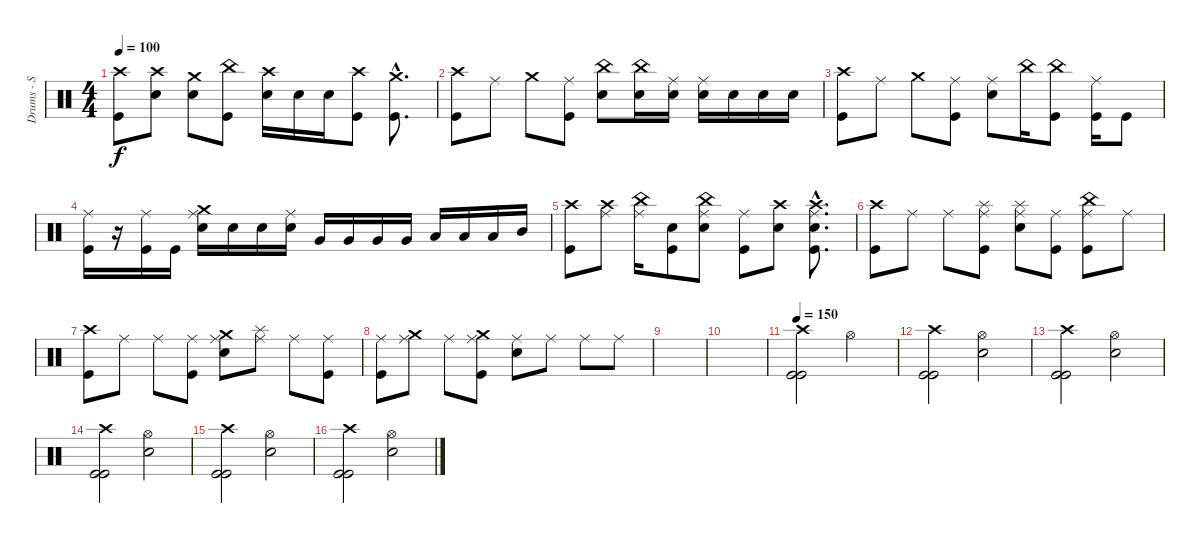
\track ("Drums - S Man" "Drums - S ") {instrument percussion}
\staff {score}
\articulation defaults
\ts (4 4)
\tempo 100
\clef neutral
\ks c
("Crash high (hit)" "Kick (hit)").8{dy f} ("Crash high (hit)" "Electric Snare (hit)").8 ("Crash medium (hit)" "Electric Snare (hit)").8 ("China (hit)" "Kick (hit)").8 ("Crash high (hit)" "Electric Snare (hit)").16 "Electric Snare (hit)".16 "Electric Snare (hit)".16 ("Crash high (hit)" "Kick (hit)").8 ("Crash medium (hit)"{hac} "Kick (hit)"{hac}).8{d} |
("Crash high (hit)" "Kick (hit)").8 "Ride (middle)".8 "Crash medium (hit)".8 ("Ride (middle)" "Kick (hit)").8 ("China (hit)" "Electric Snare (hit)").8 ("China (hit)" "Electric Snare (hit)").16 ("Ride (middle)" "Electric Snare (hit)").16 ("Ride (middle)" "Electric Snare (hit)").16 "Electric Snare (hit)".16 "Electric Snare (hit)".16 "Electric Snare (hit)".16 |
("Crash high (hit)" "Kick (hit)").8 "Ride (middle)".8 "Crash medium (hit)".8 ("Ride (middle)" "Kick (hit)").8 ("Ride (middle)" "Electric Snare (hit)").8 "China (hit)".16 ("China (hit)" "Kick (hit)").8 ("Ride (middle)" "Kick (hit)").16 "Kick (hit)".8 |
("Ride (middle)" "Kick (hit)").16 r.16 ("Ride (middle)" "Kick (hit)").16 "Kick (hit)".16 ("Crash medium (hit)" "Ride (middle)" "Electric Snare (hit)").16 "Electric Snare (hit)".16 "Electric Snare (hit)".16 ("Ride (middle)" "Electric Snare (hit)").16 "Very Low Tom (hit)".16 "Very Low Tom (hit)".16 "Very Low Tom (hit)".16 "Very Low Tom (hit)".16 "Low Tom (hit)".16 "Low Tom (hit)".16 "Low Tom (hit)".16 "Mid Tom (hit)".16 |
("Crash high (hit)" "Kick (hit)").8 ("Crash high (hit)" "Ride (middle)").8 ("China (hit)" "Ride (middle)").16 ("Electric Snare (hit)" "Kick (hit)").8 ("China (hit)" "Ride (middle)" "Electric Snare (hit)").8 ("Ride (middle)" "Kick (hit)").8 ("Crash high (hit)" "Electric Snare (hit)").8 ("Crash high (hit)"{hac} "Ride (middle)"{hac} "Electric Snare (hit)"{hac} "Kick (hit)"{hac}).8{d} |
("Crash high (hit)" "Kick (hit)").8 "Ride (middle)".8 "Ride (middle)".8 ("Splash (hit)" "Ride (middle)" "Kick (hit)").8 ("Splash (hit)" "Ride (middle)" "Electric Snare (hit)").8 ("Ride (middle)" "Kick (hit)").8 ("China (hit)" "Ride (middle)" "Kick (hit)").8 "Ride (middle)".8 |
("Crash high (hit)" "Kick (hit)").8 "Ride (middle)".8 "Ride (middle)".8 ("Ride (middle)" "Kick (hit)").8 ("Crash medium (hit)" "Ride (middle)" "Electric Snare (hit)").8 ("Splash (hit)" "Ride (middle)").8 "Ride (middle)".8 ("Ride (middle)" "Kick (hit)").8 |
("Ride (middle)" "Kick (hit)").8 ("Crash medium (hit)" "Ride (middle)").8 "Ride (middle)".8 ("Crash medium (hit)" "Ride (middle)" "Kick (hit)").8 ("Ride (middle)" "Electric Snare (hit)").8 "Ride (middle)".8 "Ride (middle)".8 "Ride (middle)".8 |
|
|
\tempo 150
("Crash high (hit)" "Kick (hit)" "Kick (hit)").2 "Hi-Hat (open)".2 |
("Crash high (hit)" "Kick (hit)" "Kick (hit)").2 ("Hi-Hat (open)" "Electric Snare (hit)").2 |
("Crash high (hit)" "Kick (hit)" "Kick (hit)").2 ("Hi-Hat (open)" "Electric Snare (hit)").2 |
("Crash high (hit)" "Kick (hit)" "Kick (hit)").2 ("Hi-Hat (open)" "Electric Snare (hit)").2 |
("Crash high (hit)" "Kick (hit)" "Kick (hit)").2 ("Hi-Hat (open)" "Electric Snare (hit)").2 |
("Crash high (hit)" "Kick (hit)" "Kick (hit)").2 ("Hi-Hat (open)" "Electric Snare (hit)").2
